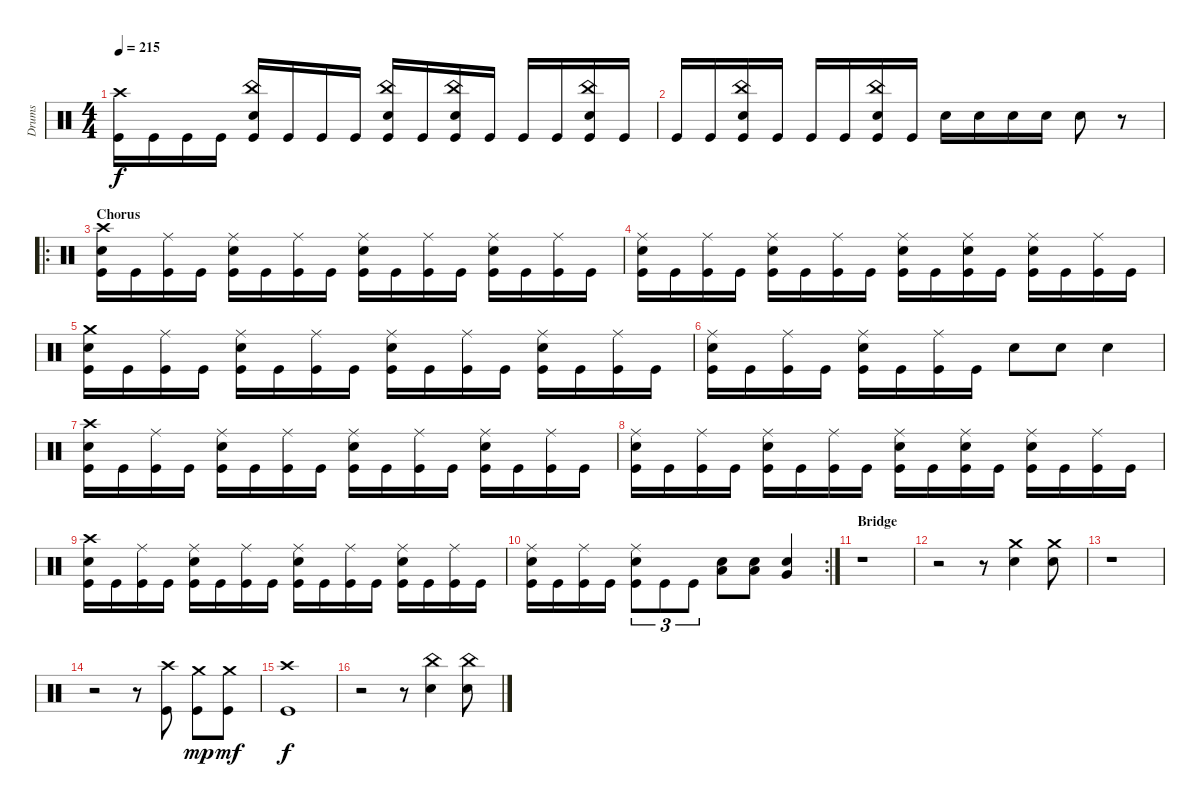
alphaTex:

\track ("Drums" "Drums") {instrument percussion}
\staff {score}
\articulation defaults
\ts (4 4)
\tempo 215
\clef neutral
\ks c
("Crash high (hit)" "Kick (hit)").16{dy f} "Kick (hit)".16 "Kick (hit)".16 "Kick (hit)".16 ("China (hit)" "Electric Snare (hit)" "Kick (hit)").16 "Kick (hit)".16 "Kick (hit)".16 "Kick (hit)".16 ("China (hit)" "Electric Snare (hit)" "Kick (hit)").16 "Kick (hit)".16 ("China (hit)" "Electric Snare (hit)" "Kick (hit)").16 "Kick (hit)".16 "Kick (hit)".16 "Kick (hit)".16 ("China (hit)" "Electric Snare (hit)" "Kick (hit)").16 "Kick (hit)".16 |
"Kick (hit)".16 "Kick (hit)".16 ("China (hit)" "Electric Snare (hit)" "Kick (hit)").16 "Kick (hit)".16 "Kick (hit)".16 "Kick (hit)".16 ("China (hit)" "Electric Snare (hit)" "Kick (hit)").16 "Kick (hit)".16 "Electric Snare (hit)".16 "Electric Snare (hit)".16 "Electric Snare (hit)".16 "Electric Snare (hit)".16 "Electric Snare (hit)".8 r.8 |
\ro
\section ("" "Chorus")
("Crash high (hit)" "Electric Snare (hit)" "Kick (hit)").16 "Kick (hit)".16 ("Ride (middle)" "Kick (hit)").16 "Kick (hit)".16 ("Ride (middle)" "Electric Snare (hit)" "Kick (hit)").16 "Kick (hit)".16 ("Ride (middle)" "Kick (hit)").16 "Kick (hit)".16 ("Ride (middle)" "Electric Snare (hit)" "Kick (hit)").16 "Kick (hit)".16 ("Ride (middle)" "Kick (hit)").16 "Kick (hit)".16 ("Ride (middle)" "Electric Snare (hit)" "Kick (hit)").16 "Kick (hit)".16 ("Ride (middle)" "Kick (hit)").16 "Kick (hit)".16 |
("Ride (middle)" "Electric Snare (hit)" "Kick (hit)").16 "Kick (hit)".16 ("Ride (middle)" "Kick (hit)").16 "Kick (hit)".16 ("Ride (middle)" "Electric Snare (hit)" "Kick (hit)").16 "Kick (hit)".16 ("Ride (middle)" "Kick (hit)").16 "Kick (hit)".16 ("Ride (middle)" "Electric Snare (hit)" "Kick (hit)").16 "Kick (hit)".16 ("Ride (middle)" "Electric Snare (hit)" "Kick (hit)").16 "Kick (hit)".16 ("Ride (middle)" "Electric Snare (hit)" "Kick (hit)").16 "Kick (hit)".16 ("Ride (middle)" "Kick (hit)").16 "Kick (hit)".16 |
("Crash medium (hit)" "Electric Snare (hit)" "Kick (hit)").16 "Kick (hit)".16 ("Ride (middle)" "Kick (hit)").16 "Kick (hit)".16 ("Ride (middle)" "Electric Snare (hit)" "Kick (hit)").16 "Kick (hit)".16 ("Ride (middle)" "Kick (hit)").16 "Kick (hit)".16 ("Ride (middle)" "Electric Snare (hit)" "Kick (hit)").16 "Kick (hit)".16 ("Ride (middle)" "Kick (hit)").16 "Kick (hit)".16 ("Ride (middle)" "Electric Snare (hit)" "Kick (hit)").16 "Kick (hit)".16 ("Ride (middle)" "Kick (hit)").16 "Kick (hit)".16 |
("Ride (middle)" "Electric Snare (hit)" "Kick (hit)").16 "Kick (hit)".16 ("Ride (middle)" "Kick (hit)").16 "Kick (hit)".16 ("Ride (middle)" "Electric Snare (hit)" "Kick (hit)").16 "Kick (hit)".16 ("Ride (middle)" "Kick (hit)").16 "Kick (hit)".16 "Electric Snare (hit)".8 "Electric Snare (hit)".8 "Electric Snare (hit)".4 |
("Crash high (hit)" "Electric Snare (hit)" "Kick (hit)").16 "Kick (hit)".16 ("Ride (middle)" "Kick (hit)").16 "Kick (hit)".16 ("Ride (middle)" "Electric Snare (hit)" "Kick (hit)").16 "Kick (hit)".16 ("Ride (middle)" "Kick (hit)").16 "Kick (hit)".16 ("Ride (middle)" "Electric Snare (hit)" "Kick (hit)").16 "Kick (hit)".16 ("Ride (middle)" "Kick (hit)").16 "Kick (hit)".16 ("Ride (middle)" "Electric Snare (hit)" "Kick (hit)").16 "Kick (hit)".16 ("Ride (middle)" "Kick (hit)").16 "Kick (hit)".16 |
("Ride (middle)" "Electric Snare (hit)" "Kick (hit)").16 "Kick (hit)".16 ("Ride (middle)" "Kick (hit)").16 "Kick (hit)".16 ("Ride (middle)" "Electric Snare (hit)" "Kick (hit)").16 "Kick (hit)".16 ("Ride (middle)" "Kick (hit)").16 "Kick (hit)".16 ("Ride (middle)" "Electric Snare (hit)" "Kick (hit)").16 "Kick (hit)".16 ("Ride (middle)" "Electric Snare (hit)" "Kick (hit)").16 "Kick (hit)".16 ("Ride (middle)" "Electric Snare (hit)" "Kick (hit)").16 "Kick (hit)".16 ("Ride (middle)" "Kick (hit)").16 "Kick (hit)".16 |
("Crash high (hit)" "Electric Snare (hit)" "Kick (hit)").16 "Kick (hit)".16 ("Ride (middle)" "Kick (hit)").16 "Kick (hit)".16 ("Ride (middle)" "Electric Snare (hit)" "Kick (hit)").16 "Kick (hit)".16 ("Ride (middle)" "Kick (hit)").16 "Kick (hit)".16 ("Ride (middle)" "Electric Snare (hit)" "Kick (hit)").16 "Kick (hit)".16 ("Ride (middle)" "Kick (hit)").16 "Kick (hit)".16 ("Ride (middle)" "Electric Snare (hit)" "Kick (hit)").16 "Kick (hit)".16 ("Ride (middle)" "Kick (hit)").16 "Kick (hit)".16 |
\rc 2
("Ride (middle)" "Electric Snare (hit)" "Kick (hit)").16 "Kick (hit)".16 ("Ride (middle)" "Kick (hit)").16 "Kick (hit)".16 ("Ride (middle)" "Electric Snare (hit)" "Kick (hit)").8{tu (3 2)} "Kick (hit)".8{tu (3 2)} "Kick (hit)".8{tu (3 2)} ("Low Tom (hit)" "Electric Snare (hit)").8 ("Low Tom (hit)" "Electric Snare (hit)").8 ("Very Low Tom (hit)" "Electric Snare (hit)").4 |
\section ("" "Bridge")
r.1 |
r.2 r.8 ("Crash medium (hit)" "Electric Snare (hit)").4 ("Crash medium (hit)" "Electric Snare (hit)").8 |
r.1 |
r.2 r.8 ("Crash high (hit)" "Kick (hit)").8 ("Crash medium (hit)" "Kick (hit)").8{dy mp} ("Crash medium (hit)" "Kick (hit)").8{dy mf} |
("Crash high (hit)" "Kick (hit)").1{dy f} |
r.2 r.8 ("China (hit)" "Electric Snare (hit)").4 ("China (hit)" "Electric Snare (hit)").8
